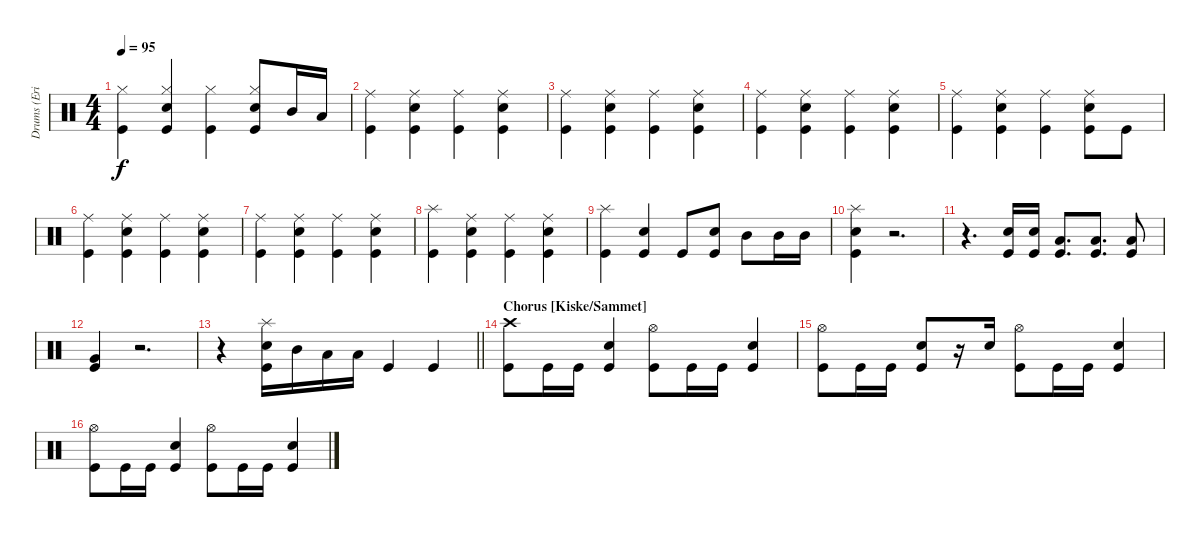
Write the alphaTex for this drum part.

\track ("Drums (Eric Singer)" "Drums (Eri") {instrument percussion}
\staff {score}
\articulation defaults
\ts (4 4)
\tempo 95
\clef neutral
\ks c
("Kick (hit)" "Hi-Hat (closed)").4{dy f} ("Snare (hit) 2" "Kick (hit)" "Hi-Hat (closed)").4 ("Kick (hit)" "Hi-Hat (closed)").4 ("Snare (hit) 2" "Kick (hit)" "Hi-Hat (closed)").8 "Mid Tom (hit)".16 "Low Tom (hit)".16 |
("Ride (middle)" "Kick (hit)").4 ("Ride (middle)" "Snare (hit) 2" "Kick (hit)").4 ("Ride (middle)" "Kick (hit)").4 ("Ride (middle)" "Snare (hit) 2" "Kick (hit)").4 |
("Ride (middle)" "Kick (hit)").4 ("Ride (middle)" "Snare (hit) 2" "Kick (hit)").4 ("Ride (middle)" "Kick (hit)").4 ("Ride (middle)" "Snare (hit) 2" "Kick (hit)").4 |
("Ride (middle)" "Kick (hit)").4 ("Ride (middle)" "Snare (hit) 2" "Kick (hit)").4 ("Ride (middle)" "Kick (hit)").4 ("Ride (middle)" "Snare (hit) 2" "Kick (hit)").4 |
("Ride (middle)" "Kick (hit)").4 ("Ride (middle)" "Snare (hit) 2" "Kick (hit)").4 ("Ride (middle)" "Kick (hit)").4 ("Ride (middle)" "Snare (hit) 2" "Kick (hit)").8 "Kick (hit)".8 |
("Ride (middle)" "Kick (hit)").4 ("Ride (middle)" "Snare (hit) 2" "Kick (hit)").4 ("Ride (middle)" "Kick (hit)").4 ("Ride (middle)" "Snare (hit) 2" "Kick (hit)").4 |
("Ride (middle)" "Kick (hit)").4 ("Ride (middle)" "Snare (hit) 2" "Kick (hit)").4 ("Ride (middle)" "Kick (hit)").4 ("Ride (middle)" "Snare (hit) 2" "Kick (hit)").4 |
("Splash (hit)" "Kick (hit)").4 ("Ride (middle)" "Snare (hit) 2" "Kick (hit)").4 ("Ride (middle)" "Kick (hit)").4 ("Ride (middle)" "Snare (hit) 2" "Kick (hit)").4 |
("Splash (hit)" "Kick (hit)").4 ("Snare (hit) 2" "Kick (hit)").4 "Kick (hit)".8 ("Snare (hit) 2" "Kick (hit)").8 "Mid Tom (hit)".8 "Mid Tom (hit)".16 "Mid Tom (hit)".16 |
("Splash (hit)" "Snare (hit) 2" "Kick (hit)").4 r.2{d} |
r.4{d} ("Snare (hit) 2" "Kick (hit)").16 ("Snare (hit) 2" "Kick (hit)").16 ("Low Tom (hit)" "Kick (hit)").8{d} ("Low Tom (hit)" "Kick (hit)").8{d} ("Low Tom (hit)" "Kick (hit)").8 |
("Very Low Tom (hit)" "Kick (hit)").4 r.2{d} |
\barLineRight lightlight
r.4 ("Kick (hit)" "Snare (hit) 2" "Splash (hit)").16 "Mid Tom (hit)".16 "Low Tom (hit)".16 "Low Tom (hit)".16 "Kick (hit)".4 "Kick (hit)".4 |
\section ("" "Chorus [Kiske/Sammet]")
("Crash high (hit)" "Kick (hit)").8 "Kick (hit)".16 "Kick (hit)".16 ("Snare (hit) 2" "Kick (hit)").4 ("Kick (hit)" "Hi-Hat (open)").8 "Kick (hit)".16 "Kick (hit)".16 ("Snare (hit) 2" "Kick (hit)").4 |
("Kick (hit)" "Hi-Hat (open)").8 "Kick (hit)".16 "Kick (hit)".16 ("Snare (hit) 2" "Kick (hit)").8 r.16 "Snare (hit) 2".16 ("Kick (hit)" "Hi-Hat (open)").8 "Kick (hit)".16 "Kick (hit)".16 ("Snare (hit) 2" "Kick (hit)").4 |
("Kick (hit)" "Hi-Hat (open)").8 "Kick (hit)".16 "Kick (hit)".16 ("Snare (hit) 2" "Kick (hit)").4 ("Kick (hit)" "Hi-Hat (open)").8 "Kick (hit)".16 "Kick (hit)".16 ("Snare (hit) 2" "Kick (hit)").4
